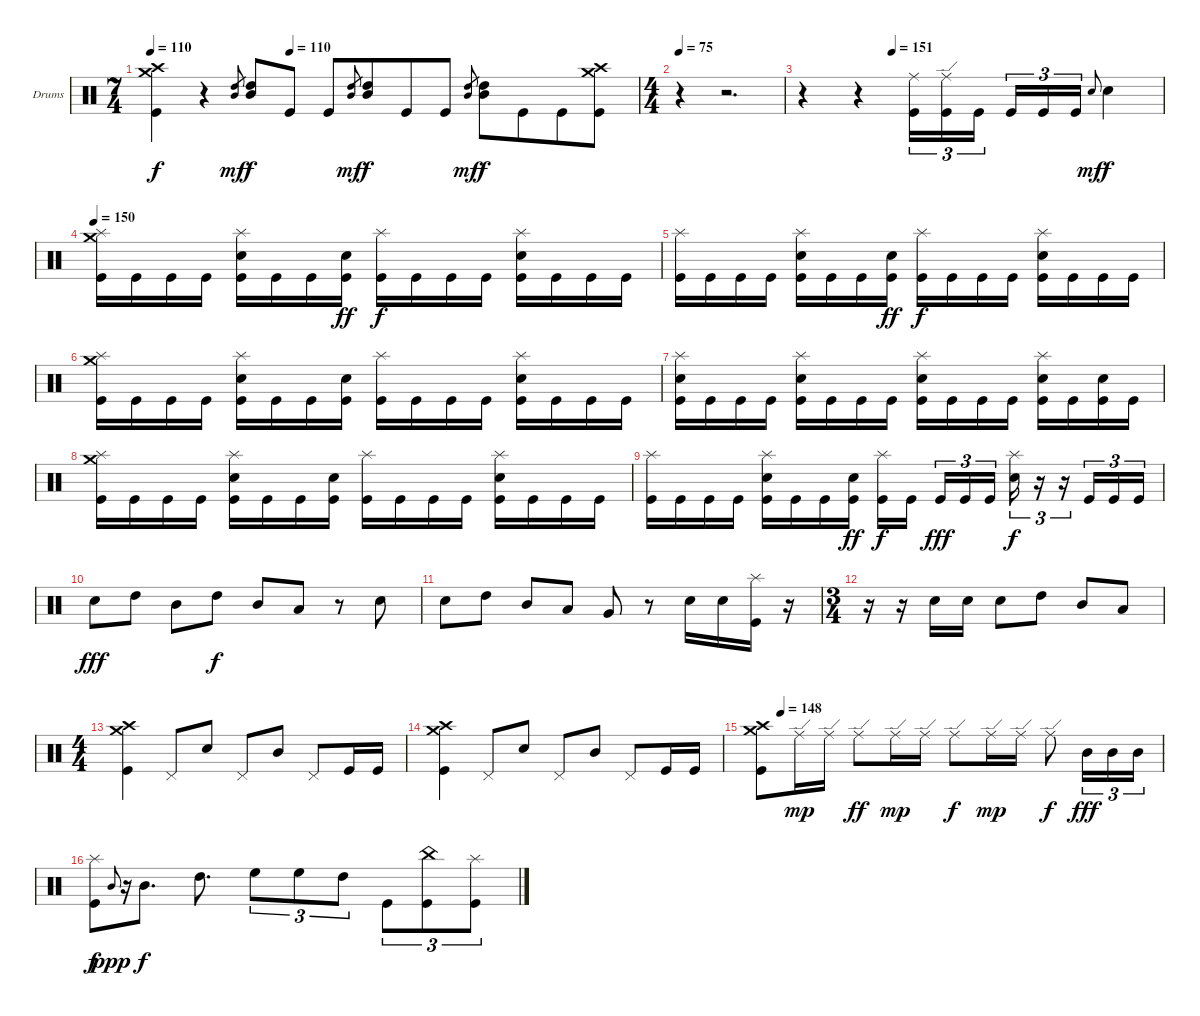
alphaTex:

\bracketExtendMode groupsimilarinstruments
\firstSystemTrackNameOrientation horizontal
\otherSystemsTrackNameOrientation horizontal
\track ("Ударные" "Drums") {instrument percussion}
\staff {score}
\articulation defaults
\ts (7 4)
\beaming (8 6 4 4)
\tempo 110
\tempo (110 0.285714)
\clef neutral
\ks c
("Crash medium (hit)" "Crash high (hit)" "Kick (hit)").4{dy f} r.4 ("Mid Tom (hit)" "High Tom (hit)").8{gr dy mf} ("Mid Tom (hit)" "High Tom (hit)").8{dy f} "Kick (hit)".8 "Kick (hit)".8 ("Mid Tom (hit)" "High Tom (hit)").8{gr dy mf} ("Mid Tom (hit)" "High Tom (hit)").8{dy f} "Kick (hit)".8 "Kick (hit)".8 ("Mid Tom (hit)" "High Tom (hit)").8{gr dy mf} ("Mid Tom (hit)" "High Tom (hit)").8{dy f} "Kick (hit)".8 "Kick (hit)".8 ("Crash medium (hit)" "Crash high (hit)" "Kick (hit)").8 |
\ts (4 4)
\beaming (8 2 2 2 2)
\tempo 75
r.4 r.2{d} |
\tempo (151 0.25)
r.4 r.4 ("Ride (middle)" "Kick (hit)").16{tu (3 2)} ("Ride (edge)" "Kick (hit)").16{tu (3 2)} "Kick (hit)".16{tu (3 2)} "Kick (hit)".16{tu (3 2)} "Kick (hit)".16{tu (3 2)} "Kick (hit)".16{tu (3 2)} "Snare (hit) 2".8{gr onbeat dy mf} "Snare (hit) 2".4{dy f} |
\tempo 150
("Crash medium (hit)" "Splash (hit)" "Kick (hit)").16 "Kick (hit)".16 "Kick (hit)".16 "Kick (hit)".16 ("Splash (hit)" "Snare (hit) 2" "Kick (hit)").16 "Kick (hit)".16 "Kick (hit)".16 ("Snare (hit) 2" "Kick (hit)").16{dy ff} ("Splash (hit)" "Kick (hit)").16{dy f} "Kick (hit)".16 "Kick (hit)".16 "Kick (hit)".16 ("Splash (hit)" "Snare (hit) 2" "Kick (hit)").16 "Kick (hit)".16 "Kick (hit)".16 "Kick (hit)".16 |
("Splash (hit)" "Kick (hit)").16 "Kick (hit)".16 "Kick (hit)".16 "Kick (hit)".16 ("Splash (hit)" "Snare (hit) 2" "Kick (hit)").16 "Kick (hit)".16 "Kick (hit)".16 ("Snare (hit) 2" "Kick (hit)").16{dy ff} ("Splash (hit)" "Kick (hit)").16{dy f} "Kick (hit)".16 "Kick (hit)".16 "Kick (hit)".16 ("Splash (hit)" "Snare (hit) 2" "Kick (hit)").16 "Kick (hit)".16 "Kick (hit)".16 "Kick (hit)".16 |
("Crash medium (hit)" "Splash (hit)" "Kick (hit)").16 "Kick (hit)".16 "Kick (hit)".16 "Kick (hit)".16 ("Splash (hit)" "Snare (hit) 2" "Kick (hit)").16 "Kick (hit)".16 "Kick (hit)".16 ("Snare (hit) 2" "Kick (hit)").16 ("Splash (hit)" "Kick (hit)").16 "Kick (hit)".16 "Kick (hit)".16 "Kick (hit)".16 ("Splash (hit)" "Snare (hit) 2" "Kick (hit)").16 "Kick (hit)".16 "Kick (hit)".16 "Kick (hit)".16 |
("Splash (hit)" "Snare (hit) 2" "Kick (hit)").16 "Kick (hit)".16 "Kick (hit)".16 "Kick (hit)".16 ("Splash (hit)" "Snare (hit) 2" "Kick (hit)").16 "Kick (hit)".16 "Kick (hit)".16 "Kick (hit)".16 ("Splash (hit)" "Snare (hit) 2" "Kick (hit)").16 "Kick (hit)".16 "Kick (hit)".16 "Kick (hit)".16 ("Splash (hit)" "Snare (hit) 2" "Kick (hit)").16 "Kick (hit)".16 ("Snare (hit) 2" "Kick (hit)").16 "Kick (hit)".16 |
("Crash medium (hit)" "Splash (hit)" "Kick (hit)").16 "Kick (hit)".16 "Kick (hit)".16 "Kick (hit)".16 ("Splash (hit)" "Snare (hit) 2" "Kick (hit)").16 "Kick (hit)".16 "Kick (hit)".16 ("Snare (hit) 2" "Kick (hit)").16 ("Splash (hit)" "Kick (hit)").16 "Kick (hit)".16 "Kick (hit)".16 "Kick (hit)".16 ("Splash (hit)" "Snare (hit) 2" "Kick (hit)").16 "Kick (hit)".16 "Kick (hit)".16 "Kick (hit)".16 |
("Splash (hit)" "Kick (hit)").16 "Kick (hit)".16 "Kick (hit)".16 "Kick (hit)".16 ("Splash (hit)" "Snare (hit) 2" "Kick (hit)").16 "Kick (hit)".16 "Kick (hit)".16 ("Snare (hit) 2" "Kick (hit)").16{dy ff} ("Splash (hit)" "Kick (hit)").16{dy f} "Kick (hit)".16 "Kick (hit)".16{tu (3 2) dy fff} "Kick (hit)".16{tu (3 2)} "Kick (hit)".16{tu (3 2)} ("Splash (hit)" "Snare (hit) 2").16{tu (3 2) dy f} r.16{tu (3 2)} r.16{tu (3 2)} "Kick (hit)".16{tu (3 2)} "Kick (hit)".16{tu (3 2)} "Kick (hit)".16{tu (3 2)} |
"Snare (hit) 2".8{dy fff} "High Tom (hit)".8 "Mid Tom (hit)".8 "High Tom (hit)".8{dy f} "Mid Tom (hit)".8 "Low Tom (hit)".8 r.8 "Snare (hit) 2".8 |
"Snare (hit) 2".8 "High Tom (hit)".8 "Mid Tom (hit)".8 "Low Tom (hit)".8 "Very Low Tom (hit)".8 r.8 "Snare (hit) 2".16 "Snare (hit) 2".16 ("Splash (hit)" "Kick (hit)").16 r.16 |
\ts (3 4)
\beaming (8 2 2 2)
r.16 r.16 "Snare (hit) 2".16 "Snare (hit) 2".16 "Snare (hit) 2".8 "High Tom (hit)".8 "Mid Tom (hit)".8 "Low Tom (hit)".8 |
\ts (4 4)
\beaming (8 2 2 2 2)
("Crash medium (hit)" "Crash high (hit)" "Kick (hit)").4 "Pedal Hi-Hat (hit)".8 "Snare (hit) 2".8 "Pedal Hi-Hat (hit)".8 "Mid Tom (hit)".8 "Pedal Hi-Hat (hit)".8 "Kick (hit)".16 "Kick (hit)".16 |
("Crash medium (hit)" "Crash high (hit)" "Kick (hit)").4 "Pedal Hi-Hat (hit)".8 "Snare (hit) 2".8 "Pedal Hi-Hat (hit)".8 "Mid Tom (hit)".8 "Pedal Hi-Hat (hit)".8 "Kick (hit)".16 "Kick (hit)".16 |
\tempo (148 0.0625)
("Crash medium (hit)" "Crash high (hit)" "Kick (hit)").8 "Ride (edge)".16{dy mp} "Ride (edge)".16 "Ride (edge)".8{dy ff} "Ride (edge)".16{dy mp} "Ride (edge)".16 "Ride (edge)".8{dy f} "Ride (edge)".16{dy mp} "Ride (edge)".16 "Ride (edge)".8{dy f} "Mid Tom (hit)".16{tu (3 2) dy fff} "Mid Tom (hit)".16{tu (3 2)} "Mid Tom (hit)".16{tu (3 2)} |
("Splash (hit)" "Kick (hit)").8{dy f} "Mid Tom (hit)".16{gr onbeat dy ppp} r.16{gr onbeat} "Mid Tom (hit)".8{d dy f} "High Tom (hit)".8{d} "High Floor Tom (hit)".8{tu (3 2)} "High Floor Tom (hit)".8{tu (3 2)} "High Tom (hit)".8{tu (3 2)} "Kick (hit)".8{tu (3 2)} ("China (hit)" "Kick (hit)").8{tu (3 2)} ("Splash (hit)" "Kick (hit)").8{tu (3 2)}
